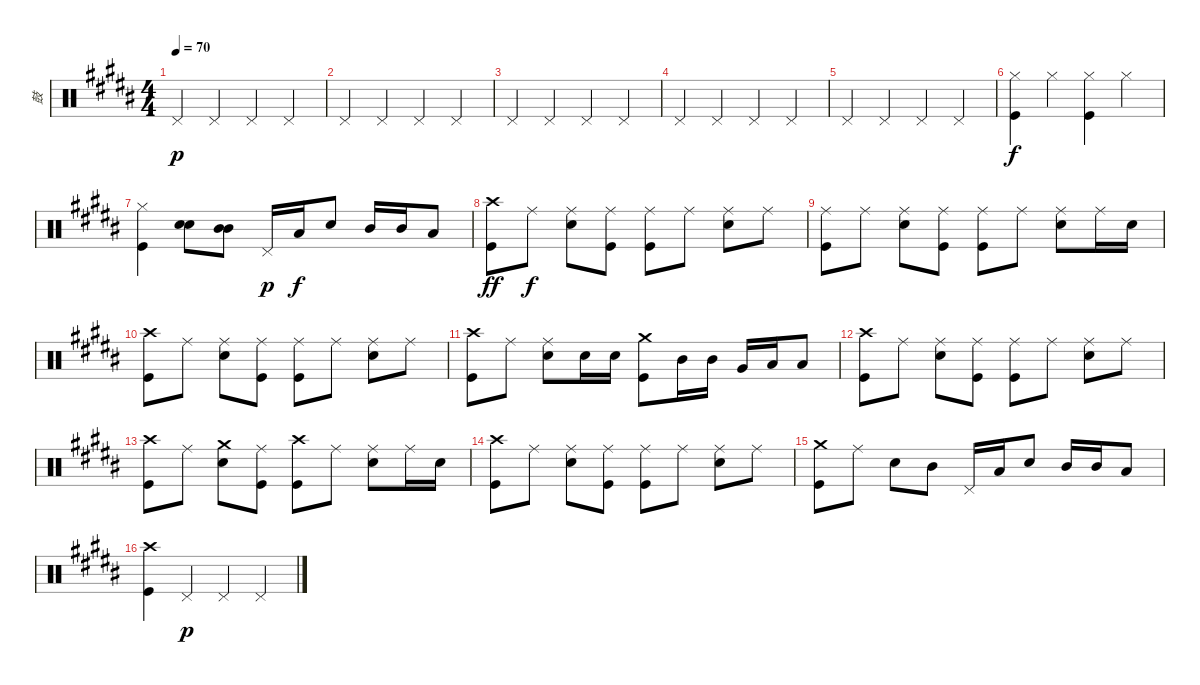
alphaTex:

\track ("鼓" "鼓") {instrument percussion}
\staff {score}
\articulation defaults
\ts (4 4)
\tempo 70
\clef neutral
\ks b "Pedal Hi-Hat (hit)".4{dy p} "Pedal Hi-Hat (hit)".4 "Pedal Hi-Hat (hit)".4 "Pedal Hi-Hat (hit)".4
|
"Pedal Hi-Hat (hit)".4 "Pedal Hi-Hat (hit)".4 "Pedal Hi-Hat (hit)".4 "Pedal Hi-Hat (hit)".4 |
"Pedal Hi-Hat (hit)".4 "Pedal Hi-Hat (hit)".4 "Pedal Hi-Hat (hit)".4 "Pedal Hi-Hat (hit)".4 |
"Pedal Hi-Hat (hit)".4 "Pedal Hi-Hat (hit)".4 "Pedal Hi-Hat (hit)".4 "Pedal Hi-Hat (hit)".4 |
"Pedal Hi-Hat (hit)".4 "Pedal Hi-Hat (hit)".4 "Pedal Hi-Hat (hit)".4 "Pedal Hi-Hat (hit)".4 |
("Hi-Hat (closed)" "Kick (hit)").4{dy f} "Hi-Hat (closed)".4 ("Hi-Hat (closed)" "Kick (hit)").4 "Hi-Hat (closed)".4 |
("Hi-Hat (closed)" "Kick (hit)").4 ("Electric Snare (hit)" "Electric Snare (hit)").8 ("Mid Tom (hit)" "Mid Tom (hit)").8 "Pedal Hi-Hat (hit)".16{dy p} "Low Tom (hit)".16{dy f} "Electric Snare (hit)".8 "Mid Tom (hit)".16 "Mid Tom (hit)".16 "Low Tom (hit)".8 |
("Crash high (hit)" "Kick (hit)").8{dy ff} "Ride (middle)".8{dy f} ("Ride (middle)" "Electric Snare (hit)").8 ("Ride (middle)" "Kick (hit)").8 ("Ride (middle)" "Kick (hit)").8 "Ride (middle)".8 ("Ride (middle)" "Electric Snare (hit)").8 "Ride (middle)".8 |
("Ride (middle)" "Kick (hit)").8 "Ride (middle)".8 ("Ride (middle)" "Electric Snare (hit)").8 ("Ride (middle)" "Kick (hit)").8 ("Ride (middle)" "Kick (hit)").8 "Ride (middle)".8 ("Ride (middle)" "Electric Snare (hit)").8 "Ride (middle)".16 "Electric Snare (hit)".16 |
("Crash high (hit)" "Kick (hit)").8 "Ride (middle)".8 ("Ride (middle)" "Electric Snare (hit)").8 ("Ride (middle)" "Kick (hit)").8 ("Ride (middle)" "Kick (hit)").8 "Ride (middle)".8 ("Ride (middle)" "Electric Snare (hit)").8 "Ride (middle)".8 |
("Crash high (hit)" "Kick (hit)").8 "Ride (middle)".8 ("Ride (middle)" "Electric Snare (hit)").8 "Electric Snare (hit)".16 "Electric Snare (hit)".16 ("Crash medium (hit)" "Kick (hit)").8 "Mid Tom (hit)".16 "Mid Tom (hit)".16 "Very Low Tom (hit)".16 "Low Tom (hit)".16 "Low Tom (hit)".8 |
("Crash high (hit)" "Kick (hit)").8 "Ride (middle)".8 ("Ride (middle)" "Electric Snare (hit)").8 ("Ride (middle)" "Kick (hit)").8 ("Ride (middle)" "Kick (hit)").8 "Ride (middle)".8 ("Ride (middle)" "Electric Snare (hit)").8 "Ride (middle)".8 |
("Crash high (hit)" "Kick (hit)").8 "Ride (middle)".8 ("Crash medium (hit)" "Electric Snare (hit)").8 ("Ride (middle)" "Kick (hit)").8 ("Crash high (hit)" "Kick (hit)").8 "Ride (middle)".8 ("Ride (middle)" "Electric Snare (hit)").8 "Ride (middle)".16 "Electric Snare (hit)".16 |
("Crash high (hit)" "Kick (hit)").8 "Ride (middle)".8 ("Ride (middle)" "Electric Snare (hit)").8 ("Ride (middle)" "Kick (hit)").8 ("Ride (middle)" "Kick (hit)").8 "Ride (middle)".8 ("Ride (middle)" "Electric Snare (hit)").8 "Ride (middle)".8 |
("Crash medium (hit)" "Kick (hit)").8 "Ride (middle)".8 "Electric Snare (hit)".8 "Mid Tom (hit)".8 "Pedal Hi-Hat (hit)".16 "Low Tom (hit)".16 "Electric Snare (hit)".8 "Mid Tom (hit)".16 "Mid Tom (hit)".16 "Low Tom (hit)".8 |
("Crash high (hit)" "Kick (hit)").4 "Pedal Hi-Hat (hit)".4{dy p} "Pedal Hi-Hat (hit)".4 "Pedal Hi-Hat (hit)".4
